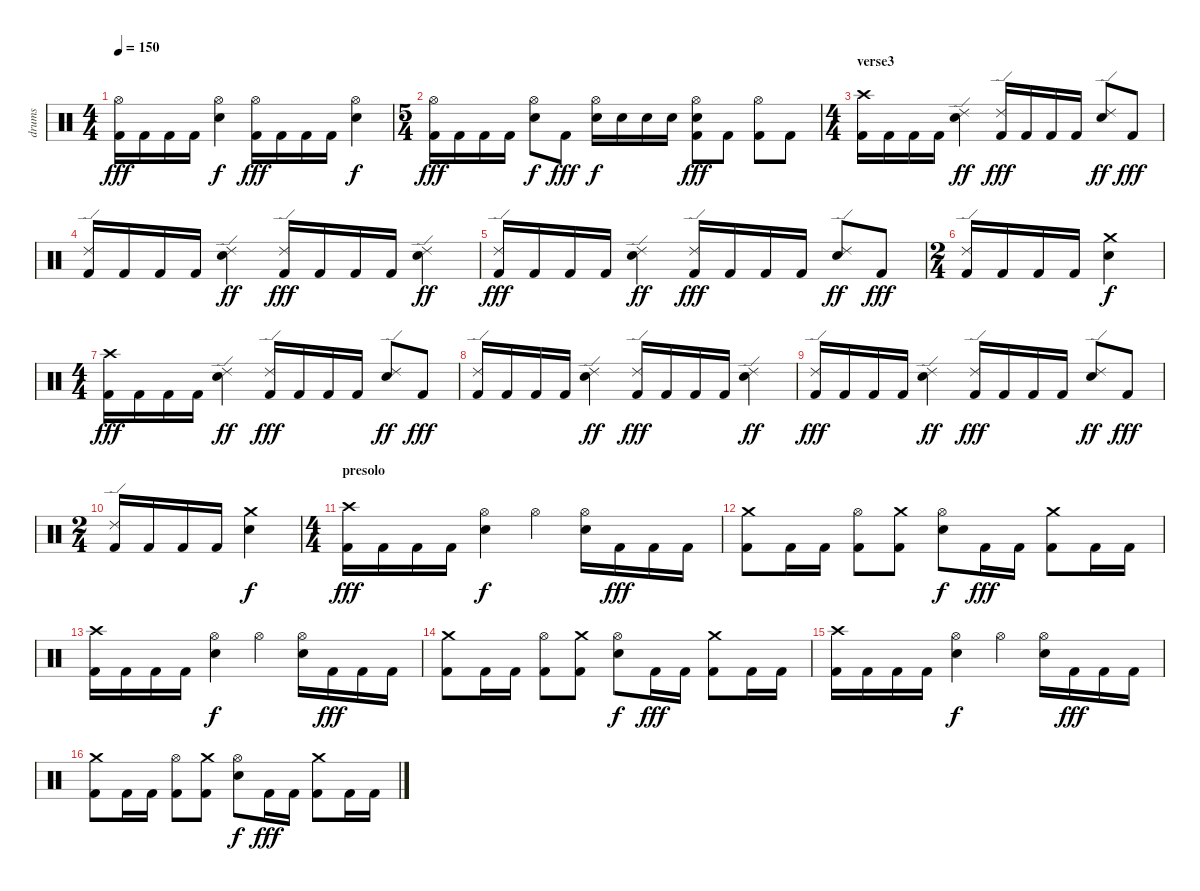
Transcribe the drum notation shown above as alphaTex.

\track ("drums" "drums") {instrument percussion}
\staff {score}
\articulation defaults
\ts (4 4)
\tempo 150
\clef neutral
\ks c
("Hi-Hat (open)" "Kick (hit) 2").16{dy fff} "Kick (hit) 2".16 "Kick (hit) 2".16 "Kick (hit) 2".16 ("Hi-Hat (open)" "Snare (hit) 2").4{dy f} ("Hi-Hat (open)" "Kick (hit) 2").16{dy fff} "Kick (hit) 2".16 "Kick (hit) 2".16 "Kick (hit) 2".16 ("Hi-Hat (open)" "Snare (hit) 2").4{dy f} |
\ts (5 4)
("Hi-Hat (open)" "Kick (hit) 2").16{dy fff} "Kick (hit) 2".16 "Kick (hit) 2".16 "Kick (hit) 2".16 ("Hi-Hat (open)" "Snare (hit) 2").8{dy f} "Kick (hit) 2".8{dy fff} ("Hi-Hat (open)" "Snare (hit) 2").16{dy f} "Snare (hit) 2".16 "Snare (hit) 2".16 "Snare (hit) 2".16 ("Hi-Hat (open)" "Snare (hit) 2" "Kick (hit) 2").8{dy fff} "Kick (hit) 2".8 ("Hi-Hat (open)" "Kick (hit) 2").8 "Kick (hit) 2".8 |
\ts (4 4)
\section ("" "verse3")
("Crash high (hit)" "Kick (hit) 2").16 "Kick (hit) 2".16 "Kick (hit) 2".16 "Kick (hit) 2".16 ("Ride (edge) 2" "Snare (hit) 2").4{dy ff} ("Ride (edge) 2" "Kick (hit) 2").16{dy fff} "Kick (hit) 2".16 "Kick (hit) 2".16 "Kick (hit) 2".16 ("Ride (edge) 2" "Snare (hit) 2").8{dy ff} "Kick (hit) 2".8{dy fff} |
("Ride (edge) 2" "Kick (hit) 2").16 "Kick (hit) 2".16 "Kick (hit) 2".16 "Kick (hit) 2".16 ("Ride (edge) 2" "Snare (hit) 2").4{dy ff} ("Ride (edge) 2" "Kick (hit) 2").16{dy fff} "Kick (hit) 2".16 "Kick (hit) 2".16 "Kick (hit) 2".16 ("Ride (edge) 2" "Snare (hit) 2").4{dy ff} |
("Ride (edge) 2" "Kick (hit) 2").16{dy fff} "Kick (hit) 2".16 "Kick (hit) 2".16 "Kick (hit) 2".16 ("Ride (edge) 2" "Snare (hit) 2").4{dy ff} ("Ride (edge) 2" "Kick (hit) 2").16{dy fff} "Kick (hit) 2".16 "Kick (hit) 2".16 "Kick (hit) 2".16 ("Ride (edge) 2" "Snare (hit) 2").8{dy ff} "Kick (hit) 2".8{dy fff} |
\ts (2 4)
("Ride (edge) 2" "Kick (hit) 2").16 "Kick (hit) 2".16 "Kick (hit) 2".16 "Kick (hit) 2".16 ("Crash medium (hit)" "Snare (hit) 2").4{dy f} |
\ts (4 4)
("Crash high (hit)" "Kick (hit) 2").16{dy fff} "Kick (hit) 2".16 "Kick (hit) 2".16 "Kick (hit) 2".16 ("Ride (edge) 2" "Snare (hit) 2").4{dy ff} ("Ride (edge) 2" "Kick (hit) 2").16{dy fff} "Kick (hit) 2".16 "Kick (hit) 2".16 "Kick (hit) 2".16 ("Ride (edge) 2" "Snare (hit) 2").8{dy ff} "Kick (hit) 2".8{dy fff} |
("Ride (edge) 2" "Kick (hit) 2").16 "Kick (hit) 2".16 "Kick (hit) 2".16 "Kick (hit) 2".16 ("Ride (edge) 2" "Snare (hit) 2").4{dy ff} ("Ride (edge) 2" "Kick (hit) 2").16{dy fff} "Kick (hit) 2".16 "Kick (hit) 2".16 "Kick (hit) 2".16 ("Ride (edge) 2" "Snare (hit) 2").4{dy ff} |
("Ride (edge) 2" "Kick (hit) 2").16{dy fff} "Kick (hit) 2".16 "Kick (hit) 2".16 "Kick (hit) 2".16 ("Ride (edge) 2" "Snare (hit) 2").4{dy ff} ("Ride (edge) 2" "Kick (hit) 2").16{dy fff} "Kick (hit) 2".16 "Kick (hit) 2".16 "Kick (hit) 2".16 ("Ride (edge) 2" "Snare (hit) 2").8{dy ff} "Kick (hit) 2".8{dy fff} |
\ts (2 4)
("Ride (edge) 2" "Kick (hit) 2").16 "Kick (hit) 2".16 "Kick (hit) 2".16 "Kick (hit) 2".16 ("Crash medium (hit)" "Snare (hit) 2").4{dy f} |
\ts (4 4)
\section ("" "presolo")
("Crash high (hit)" "Kick (hit) 2").16{dy fff} "Kick (hit) 2".16 "Kick (hit) 2".16 "Kick (hit) 2".16 ("Hi-Hat (open)" "Snare (hit) 2").4{dy f} "Hi-Hat (open)".4 ("Hi-Hat (open)" "Snare (hit) 2").16 "Kick (hit) 2".16{dy fff} "Kick (hit) 2".16 "Kick (hit) 2".16 |
("Crash medium (hit)" "Kick (hit) 2").8 "Kick (hit) 2".16 "Kick (hit) 2".16 ("Hi-Hat (open)" "Kick (hit) 2").8 ("Crash medium (hit)" "Kick (hit) 2").8 ("Hi-Hat (open)" "Snare (hit) 2").8{dy f} "Kick (hit) 2".16{dy fff} "Kick (hit) 2".16 ("Crash medium (hit)" "Kick (hit) 2").8 "Kick (hit) 2".16 "Kick (hit) 2".16 |
("Crash high (hit)" "Kick (hit) 2").16 "Kick (hit) 2".16 "Kick (hit) 2".16 "Kick (hit) 2".16 ("Hi-Hat (open)" "Snare (hit) 2").4{dy f} "Hi-Hat (open)".4 ("Hi-Hat (open)" "Snare (hit) 2").16 "Kick (hit) 2".16{dy fff} "Kick (hit) 2".16 "Kick (hit) 2".16 |
("Crash medium (hit)" "Kick (hit) 2").8 "Kick (hit) 2".16 "Kick (hit) 2".16 ("Hi-Hat (open)" "Kick (hit) 2").8 ("Crash medium (hit)" "Kick (hit) 2").8 ("Hi-Hat (open)" "Snare (hit) 2").8{dy f} "Kick (hit) 2".16{dy fff} "Kick (hit) 2".16 ("Crash medium (hit)" "Kick (hit) 2").8 "Kick (hit) 2".16 "Kick (hit) 2".16 |
("Crash high (hit)" "Kick (hit) 2").16 "Kick (hit) 2".16 "Kick (hit) 2".16 "Kick (hit) 2".16 ("Hi-Hat (open)" "Snare (hit) 2").4{dy f} "Hi-Hat (open)".4 ("Hi-Hat (open)" "Snare (hit) 2").16 "Kick (hit) 2".16{dy fff} "Kick (hit) 2".16 "Kick (hit) 2".16 |
("Crash medium (hit)" "Kick (hit) 2").8 "Kick (hit) 2".16 "Kick (hit) 2".16 ("Hi-Hat (open)" "Kick (hit) 2").8 ("Crash medium (hit)" "Kick (hit) 2").8 ("Hi-Hat (open)" "Snare (hit) 2").8{dy f} "Kick (hit) 2".16{dy fff} "Kick (hit) 2".16 ("Crash medium (hit)" "Kick (hit) 2").8 "Kick (hit) 2".16 "Kick (hit) 2".16
